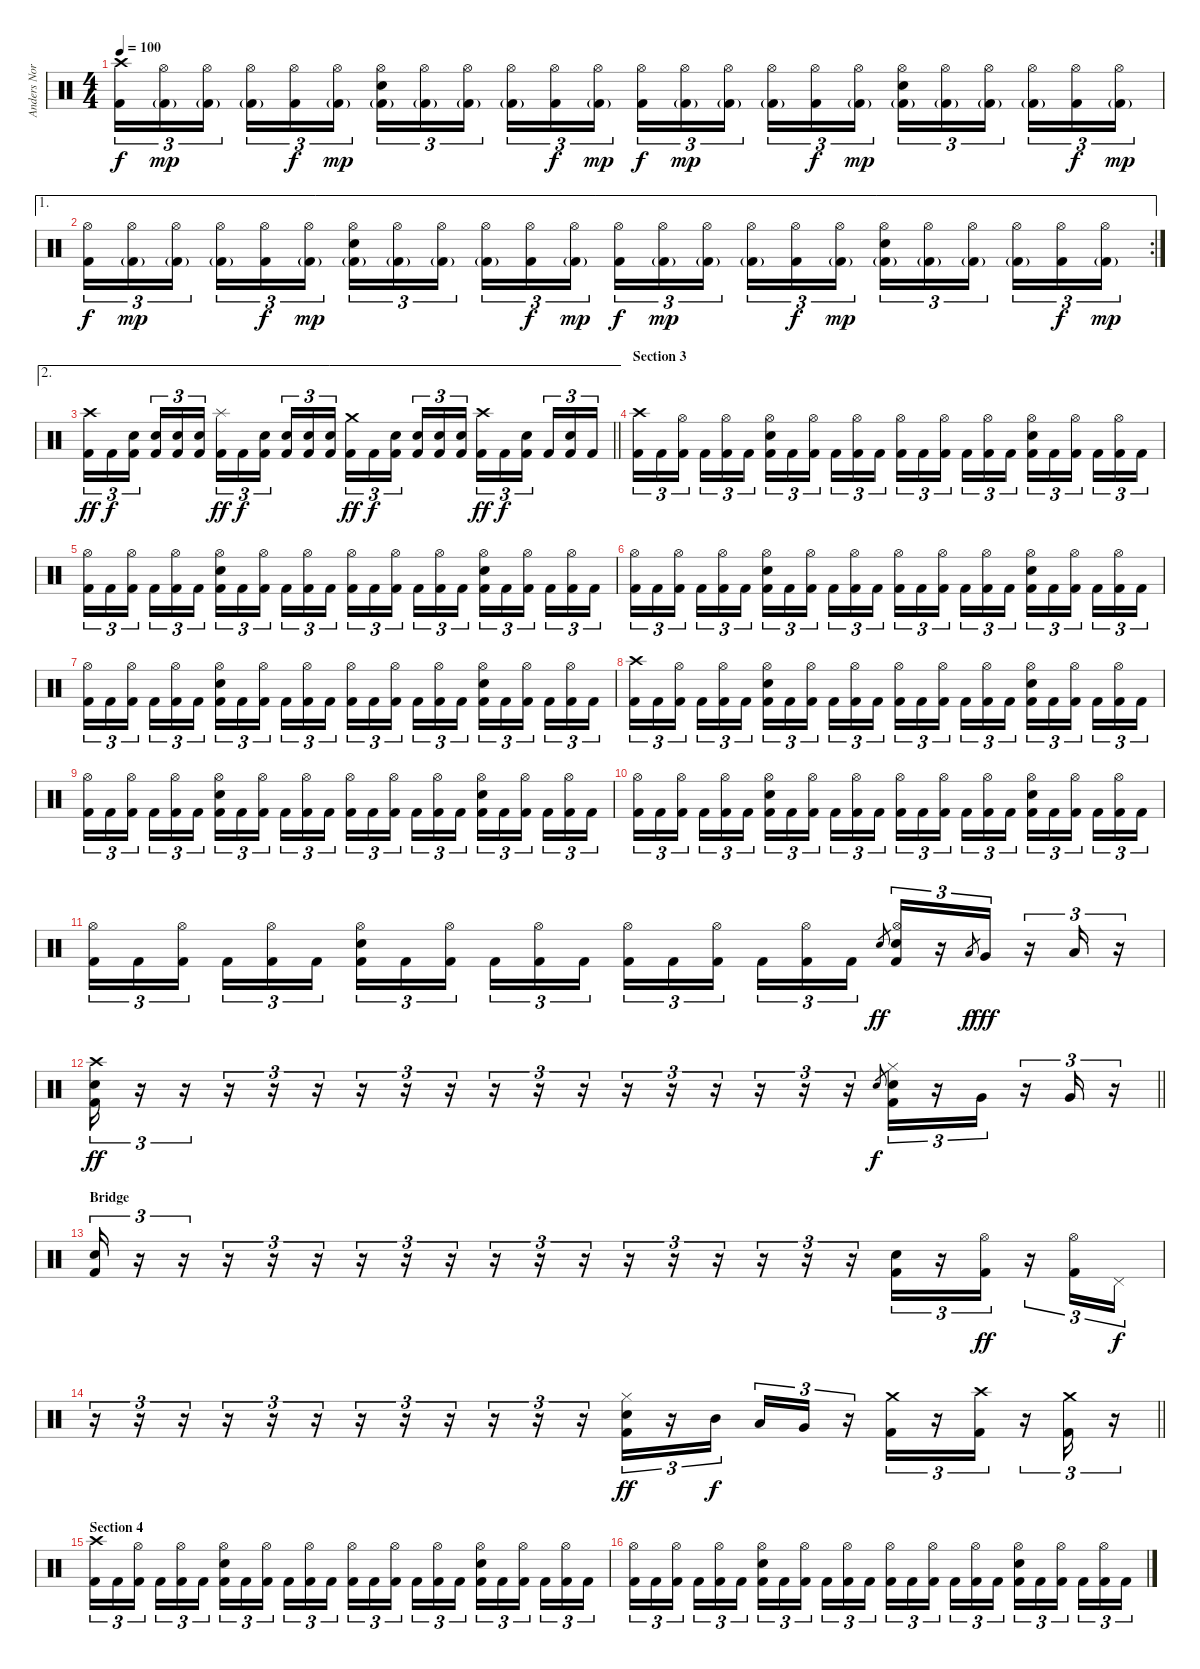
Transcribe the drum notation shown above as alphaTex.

\track ("Anders Nordin" "Anders Nor") {instrument percussion}
\staff {score}
\articulation defaults
\ts (4 4)
\tempo 100
\clef neutral
\ks c
("Crash high (hit)" "Kick (hit) 2").16{tu (3 2) dy f} ("Hi-Hat (open)" "Kick (hit) 2"{g}).16{tu (3 2) dy mp} ("Hi-Hat (open)" "Kick (hit) 2"{g}).16{tu (3 2) beam splitsecondary} ("Hi-Hat (open)" "Kick (hit) 2"{g}).16{tu (3 2)} ("Hi-Hat (open)" "Kick (hit) 2").16{tu (3 2) dy f} ("Hi-Hat (open)" "Kick (hit) 2"{g}).16{tu (3 2) dy mp} ("Hi-Hat (open)" "Snare (hit) 2" "Kick (hit) 2"{g}).16{tu (3 2)} ("Hi-Hat (open)" "Kick (hit) 2"{g}).16{tu (3 2)} ("Hi-Hat (open)" "Kick (hit) 2"{g}).16{tu (3 2) beam splitsecondary} ("Hi-Hat (open)" "Kick (hit) 2"{g}).16{tu (3 2)} ("Hi-Hat (open)" "Kick (hit) 2").16{tu (3 2) dy f} ("Hi-Hat (open)" "Kick (hit) 2"{g}).16{tu (3 2) dy mp} ("Hi-Hat (open)" "Kick (hit) 2").16{tu (3 2) dy f} ("Hi-Hat (open)" "Kick (hit) 2"{g}).16{tu (3 2) dy mp} ("Hi-Hat (open)" "Kick (hit) 2"{g}).16{tu (3 2) beam splitsecondary} ("Hi-Hat (open)" "Kick (hit) 2"{g}).16{tu (3 2)} ("Hi-Hat (open)" "Kick (hit) 2").16{tu (3 2) dy f} ("Hi-Hat (open)" "Kick (hit) 2"{g}).16{tu (3 2) dy mp} ("Hi-Hat (open)" "Snare (hit) 2" "Kick (hit) 2"{g}).16{tu (3 2)} ("Hi-Hat (open)" "Kick (hit) 2"{g}).16{tu (3 2)} ("Hi-Hat (open)" "Kick (hit) 2"{g}).16{tu (3 2) beam splitsecondary} ("Hi-Hat (open)" "Kick (hit) 2"{g}).16{tu (3 2)} ("Hi-Hat (open)" "Kick (hit) 2").16{tu (3 2) dy f} ("Hi-Hat (open)" "Kick (hit) 2"{g}).16{tu (3 2) dy mp} |
\ae 1
\rc 2
("Hi-Hat (open)" "Kick (hit) 2").16{tu (3 2) dy f} ("Hi-Hat (open)" "Kick (hit) 2"{g}).16{tu (3 2) dy mp} ("Hi-Hat (open)" "Kick (hit) 2"{g}).16{tu (3 2) beam splitsecondary} ("Hi-Hat (open)" "Kick (hit) 2"{g}).16{tu (3 2)} ("Hi-Hat (open)" "Kick (hit) 2").16{tu (3 2) dy f} ("Hi-Hat (open)" "Kick (hit) 2"{g}).16{tu (3 2) dy mp} ("Hi-Hat (open)" "Snare (hit) 2" "Kick (hit) 2"{g}).16{tu (3 2)} ("Hi-Hat (open)" "Kick (hit) 2"{g}).16{tu (3 2)} ("Hi-Hat (open)" "Kick (hit) 2"{g}).16{tu (3 2) beam splitsecondary} ("Hi-Hat (open)" "Kick (hit) 2"{g}).16{tu (3 2)} ("Hi-Hat (open)" "Kick (hit) 2").16{tu (3 2) dy f} ("Hi-Hat (open)" "Kick (hit) 2"{g}).16{tu (3 2) dy mp} ("Hi-Hat (open)" "Kick (hit) 2").16{tu (3 2) dy f} ("Hi-Hat (open)" "Kick (hit) 2"{g}).16{tu (3 2) dy mp} ("Hi-Hat (open)" "Kick (hit) 2"{g}).16{tu (3 2) beam splitsecondary} ("Hi-Hat (open)" "Kick (hit) 2"{g}).16{tu (3 2)} ("Hi-Hat (open)" "Kick (hit) 2").16{tu (3 2) dy f} ("Hi-Hat (open)" "Kick (hit) 2"{g}).16{tu (3 2) dy mp} ("Hi-Hat (open)" "Snare (hit) 2" "Kick (hit) 2"{g}).16{tu (3 2)} ("Hi-Hat (open)" "Kick (hit) 2"{g}).16{tu (3 2)} ("Hi-Hat (open)" "Kick (hit) 2"{g}).16{tu (3 2) beam splitsecondary} ("Hi-Hat (open)" "Kick (hit) 2"{g}).16{tu (3 2)} ("Hi-Hat (open)" "Kick (hit) 2").16{tu (3 2) dy f} ("Hi-Hat (open)" "Kick (hit) 2"{g}).16{tu (3 2) dy mp} |
\ae 2
\barLineRight lightlight
("Crash high (hit)" "Kick (hit) 2").16{tu (3 2) dy ff} "Kick (hit) 2".16{tu (3 2) dy f} ("Snare (hit) 2" "Kick (hit) 2").16{tu (3 2) beam splitsecondary} ("Snare (hit) 2" "Kick (hit) 2").16{tu (3 2)} ("Snare (hit) 2" "Kick (hit) 2").16{tu (3 2)} ("Snare (hit) 2" "Kick (hit) 2").16{tu (3 2)} ("Splash (hit)" "Kick (hit) 2").16{tu (3 2) dy ff} "Kick (hit) 2".16{tu (3 2) dy f} ("Snare (hit) 2" "Kick (hit) 2").16{tu (3 2) beam splitsecondary} ("Snare (hit) 2" "Kick (hit) 2").16{tu (3 2)} ("Snare (hit) 2" "Kick (hit) 2").16{tu (3 2)} ("Snare (hit) 2" "Kick (hit) 2").16{tu (3 2)} ("Crash medium (hit)" "Kick (hit) 2").16{tu (3 2) dy ff} "Kick (hit) 2".16{tu (3 2) dy f} ("Snare (hit) 2" "Kick (hit) 2").16{tu (3 2) beam splitsecondary} ("Snare (hit) 2" "Kick (hit) 2").16{tu (3 2)} ("Snare (hit) 2" "Kick (hit) 2").16{tu (3 2)} ("Snare (hit) 2" "Kick (hit) 2").16{tu (3 2)} ("Crash high (hit)" "Kick (hit) 2").16{tu (3 2) dy ff} "Kick (hit) 2".16{tu (3 2) dy f} ("Snare (hit) 2" "Kick (hit) 2").16{tu (3 2) beam splitsecondary} "Kick (hit) 2".16{tu (3 2)} ("Snare (hit) 2" "Kick (hit) 2").16{tu (3 2)} "Kick (hit) 2".16{tu (3 2)} |
\section ("" "Section 3")
("Crash high (hit)" "Kick (hit) 2").16{tu (3 2)} "Kick (hit) 2".16{tu (3 2)} ("Hi-Hat (open)" "Kick (hit) 2").16{tu (3 2) beam splitsecondary} "Kick (hit) 2".16{tu (3 2)} ("Hi-Hat (open)" "Kick (hit) 2").16{tu (3 2)} "Kick (hit) 2".16{tu (3 2)} ("Hi-Hat (open)" "Snare (hit) 2" "Kick (hit) 2").16{tu (3 2)} "Kick (hit) 2".16{tu (3 2)} ("Hi-Hat (open)" "Kick (hit) 2").16{tu (3 2) beam splitsecondary} "Kick (hit) 2".16{tu (3 2)} ("Hi-Hat (open)" "Kick (hit) 2").16{tu (3 2)} "Kick (hit) 2".16{tu (3 2)} ("Hi-Hat (open)" "Kick (hit) 2").16{tu (3 2)} "Kick (hit) 2".16{tu (3 2)} ("Hi-Hat (open)" "Kick (hit) 2").16{tu (3 2) beam splitsecondary} "Kick (hit) 2".16{tu (3 2)} ("Hi-Hat (open)" "Kick (hit) 2").16{tu (3 2)} "Kick (hit) 2".16{tu (3 2)} ("Hi-Hat (open)" "Snare (hit) 2" "Kick (hit) 2").16{tu (3 2)} "Kick (hit) 2".16{tu (3 2)} ("Hi-Hat (open)" "Kick (hit) 2").16{tu (3 2) beam splitsecondary} "Kick (hit) 2".16{tu (3 2)} ("Hi-Hat (open)" "Kick (hit) 2").16{tu (3 2)} "Kick (hit) 2".16{tu (3 2)} |
("Hi-Hat (open)" "Kick (hit) 2").16{tu (3 2)} "Kick (hit) 2".16{tu (3 2)} ("Hi-Hat (open)" "Kick (hit) 2").16{tu (3 2) beam splitsecondary} "Kick (hit) 2".16{tu (3 2)} ("Hi-Hat (open)" "Kick (hit) 2").16{tu (3 2)} "Kick (hit) 2".16{tu (3 2)} ("Hi-Hat (open)" "Snare (hit) 2" "Kick (hit) 2").16{tu (3 2)} "Kick (hit) 2".16{tu (3 2)} ("Hi-Hat (open)" "Kick (hit) 2").16{tu (3 2) beam splitsecondary} "Kick (hit) 2".16{tu (3 2)} ("Hi-Hat (open)" "Kick (hit) 2").16{tu (3 2)} "Kick (hit) 2".16{tu (3 2)} ("Hi-Hat (open)" "Kick (hit) 2").16{tu (3 2)} "Kick (hit) 2".16{tu (3 2)} ("Hi-Hat (open)" "Kick (hit) 2").16{tu (3 2) beam splitsecondary} "Kick (hit) 2".16{tu (3 2)} ("Hi-Hat (open)" "Kick (hit) 2").16{tu (3 2)} "Kick (hit) 2".16{tu (3 2)} ("Hi-Hat (open)" "Snare (hit) 2" "Kick (hit) 2").16{tu (3 2)} "Kick (hit) 2".16{tu (3 2)} ("Hi-Hat (open)" "Kick (hit) 2").16{tu (3 2) beam splitsecondary} "Kick (hit) 2".16{tu (3 2)} ("Hi-Hat (open)" "Kick (hit) 2").16{tu (3 2)} "Kick (hit) 2".16{tu (3 2)} |
("Hi-Hat (open)" "Kick (hit) 2").16{tu (3 2)} "Kick (hit) 2".16{tu (3 2)} ("Hi-Hat (open)" "Kick (hit) 2").16{tu (3 2) beam splitsecondary} "Kick (hit) 2".16{tu (3 2)} ("Hi-Hat (open)" "Kick (hit) 2").16{tu (3 2)} "Kick (hit) 2".16{tu (3 2)} ("Hi-Hat (open)" "Snare (hit) 2" "Kick (hit) 2").16{tu (3 2)} "Kick (hit) 2".16{tu (3 2)} ("Hi-Hat (open)" "Kick (hit) 2").16{tu (3 2) beam splitsecondary} "Kick (hit) 2".16{tu (3 2)} ("Hi-Hat (open)" "Kick (hit) 2").16{tu (3 2)} "Kick (hit) 2".16{tu (3 2)} ("Hi-Hat (open)" "Kick (hit) 2").16{tu (3 2)} "Kick (hit) 2".16{tu (3 2)} ("Hi-Hat (open)" "Kick (hit) 2").16{tu (3 2) beam splitsecondary} "Kick (hit) 2".16{tu (3 2)} ("Hi-Hat (open)" "Kick (hit) 2").16{tu (3 2)} "Kick (hit) 2".16{tu (3 2)} ("Hi-Hat (open)" "Snare (hit) 2" "Kick (hit) 2").16{tu (3 2)} "Kick (hit) 2".16{tu (3 2)} ("Hi-Hat (open)" "Kick (hit) 2").16{tu (3 2) beam splitsecondary} "Kick (hit) 2".16{tu (3 2)} ("Hi-Hat (open)" "Kick (hit) 2").16{tu (3 2)} "Kick (hit) 2".16{tu (3 2)} |
("Hi-Hat (open)" "Kick (hit) 2").16{tu (3 2)} "Kick (hit) 2".16{tu (3 2)} ("Hi-Hat (open)" "Kick (hit) 2").16{tu (3 2) beam splitsecondary} "Kick (hit) 2".16{tu (3 2)} ("Hi-Hat (open)" "Kick (hit) 2").16{tu (3 2)} "Kick (hit) 2".16{tu (3 2)} ("Hi-Hat (open)" "Snare (hit) 2" "Kick (hit) 2").16{tu (3 2)} "Kick (hit) 2".16{tu (3 2)} ("Hi-Hat (open)" "Kick (hit) 2").16{tu (3 2) beam splitsecondary} "Kick (hit) 2".16{tu (3 2)} ("Hi-Hat (open)" "Kick (hit) 2").16{tu (3 2)} "Kick (hit) 2".16{tu (3 2)} ("Hi-Hat (open)" "Kick (hit) 2").16{tu (3 2)} "Kick (hit) 2".16{tu (3 2)} ("Hi-Hat (open)" "Kick (hit) 2").16{tu (3 2) beam splitsecondary} "Kick (hit) 2".16{tu (3 2)} ("Hi-Hat (open)" "Kick (hit) 2").16{tu (3 2)} "Kick (hit) 2".16{tu (3 2)} ("Hi-Hat (open)" "Snare (hit) 2" "Kick (hit) 2").16{tu (3 2)} "Kick (hit) 2".16{tu (3 2)} ("Hi-Hat (open)" "Kick (hit) 2").16{tu (3 2) beam splitsecondary} "Kick (hit) 2".16{tu (3 2)} ("Hi-Hat (open)" "Kick (hit) 2").16{tu (3 2)} "Kick (hit) 2".16{tu (3 2)} |
("Crash high (hit)" "Kick (hit) 2").16{tu (3 2)} "Kick (hit) 2".16{tu (3 2)} ("Hi-Hat (open)" "Kick (hit) 2").16{tu (3 2) beam splitsecondary} "Kick (hit) 2".16{tu (3 2)} ("Hi-Hat (open)" "Kick (hit) 2").16{tu (3 2)} "Kick (hit) 2".16{tu (3 2)} ("Hi-Hat (open)" "Snare (hit) 2" "Kick (hit) 2").16{tu (3 2)} "Kick (hit) 2".16{tu (3 2)} ("Hi-Hat (open)" "Kick (hit) 2").16{tu (3 2) beam splitsecondary} "Kick (hit) 2".16{tu (3 2)} ("Hi-Hat (open)" "Kick (hit) 2").16{tu (3 2)} "Kick (hit) 2".16{tu (3 2)} ("Hi-Hat (open)" "Kick (hit) 2").16{tu (3 2)} "Kick (hit) 2".16{tu (3 2)} ("Hi-Hat (open)" "Kick (hit) 2").16{tu (3 2) beam splitsecondary} "Kick (hit) 2".16{tu (3 2)} ("Hi-Hat (open)" "Kick (hit) 2").16{tu (3 2)} "Kick (hit) 2".16{tu (3 2)} ("Hi-Hat (open)" "Snare (hit) 2" "Kick (hit) 2").16{tu (3 2)} "Kick (hit) 2".16{tu (3 2)} ("Hi-Hat (open)" "Kick (hit) 2").16{tu (3 2) beam splitsecondary} "Kick (hit) 2".16{tu (3 2)} ("Hi-Hat (open)" "Kick (hit) 2").16{tu (3 2)} "Kick (hit) 2".16{tu (3 2)} |
("Hi-Hat (open)" "Kick (hit) 2").16{tu (3 2)} "Kick (hit) 2".16{tu (3 2)} ("Hi-Hat (open)" "Kick (hit) 2").16{tu (3 2) beam splitsecondary} "Kick (hit) 2".16{tu (3 2)} ("Hi-Hat (open)" "Kick (hit) 2").16{tu (3 2)} "Kick (hit) 2".16{tu (3 2)} ("Hi-Hat (open)" "Snare (hit) 2" "Kick (hit) 2").16{tu (3 2)} "Kick (hit) 2".16{tu (3 2)} ("Hi-Hat (open)" "Kick (hit) 2").16{tu (3 2) beam splitsecondary} "Kick (hit) 2".16{tu (3 2)} ("Hi-Hat (open)" "Kick (hit) 2").16{tu (3 2)} "Kick (hit) 2".16{tu (3 2)} ("Hi-Hat (open)" "Kick (hit) 2").16{tu (3 2)} "Kick (hit) 2".16{tu (3 2)} ("Hi-Hat (open)" "Kick (hit) 2").16{tu (3 2) beam splitsecondary} "Kick (hit) 2".16{tu (3 2)} ("Hi-Hat (open)" "Kick (hit) 2").16{tu (3 2)} "Kick (hit) 2".16{tu (3 2)} ("Hi-Hat (open)" "Snare (hit) 2" "Kick (hit) 2").16{tu (3 2)} "Kick (hit) 2".16{tu (3 2)} ("Hi-Hat (open)" "Kick (hit) 2").16{tu (3 2) beam splitsecondary} "Kick (hit) 2".16{tu (3 2)} ("Hi-Hat (open)" "Kick (hit) 2").16{tu (3 2)} "Kick (hit) 2".16{tu (3 2)} |
("Hi-Hat (open)" "Kick (hit) 2").16{tu (3 2)} "Kick (hit) 2".16{tu (3 2)} ("Hi-Hat (open)" "Kick (hit) 2").16{tu (3 2) beam splitsecondary} "Kick (hit) 2".16{tu (3 2)} ("Hi-Hat (open)" "Kick (hit) 2").16{tu (3 2)} "Kick (hit) 2".16{tu (3 2)} ("Hi-Hat (open)" "Snare (hit) 2" "Kick (hit) 2").16{tu (3 2)} "Kick (hit) 2".16{tu (3 2)} ("Hi-Hat (open)" "Kick (hit) 2").16{tu (3 2) beam splitsecondary} "Kick (hit) 2".16{tu (3 2)} ("Hi-Hat (open)" "Kick (hit) 2").16{tu (3 2)} "Kick (hit) 2".16{tu (3 2)} ("Hi-Hat (open)" "Kick (hit) 2").16{tu (3 2)} "Kick (hit) 2".16{tu (3 2)} ("Hi-Hat (open)" "Kick (hit) 2").16{tu (3 2) beam splitsecondary} "Kick (hit) 2".16{tu (3 2)} ("Hi-Hat (open)" "Kick (hit) 2").16{tu (3 2)} "Kick (hit) 2".16{tu (3 2)} ("Hi-Hat (open)" "Snare (hit) 2" "Kick (hit) 2").16{tu (3 2)} "Kick (hit) 2".16{tu (3 2)} ("Hi-Hat (open)" "Kick (hit) 2").16{tu (3 2) beam splitsecondary} "Kick (hit) 2".16{tu (3 2)} ("Hi-Hat (open)" "Kick (hit) 2").16{tu (3 2)} "Kick (hit) 2".16{tu (3 2)} |
("Hi-Hat (open)" "Kick (hit) 2").16{tu (3 2)} "Kick (hit) 2".16{tu (3 2)} ("Hi-Hat (open)" "Kick (hit) 2").16{tu (3 2) beam splitsecondary} "Kick (hit) 2".16{tu (3 2)} ("Hi-Hat (open)" "Kick (hit) 2").16{tu (3 2)} "Kick (hit) 2".16{tu (3 2)} ("Hi-Hat (open)" "Snare (hit) 2" "Kick (hit) 2").16{tu (3 2)} "Kick (hit) 2".16{tu (3 2)} ("Hi-Hat (open)" "Kick (hit) 2").16{tu (3 2) beam splitsecondary} "Kick (hit) 2".16{tu (3 2)} ("Hi-Hat (open)" "Kick (hit) 2").16{tu (3 2)} "Kick (hit) 2".16{tu (3 2)} ("Hi-Hat (open)" "Kick (hit) 2").16{tu (3 2)} "Kick (hit) 2".16{tu (3 2)} ("Hi-Hat (open)" "Kick (hit) 2").16{tu (3 2) beam splitsecondary} "Kick (hit) 2".16{tu (3 2)} ("Hi-Hat (open)" "Kick (hit) 2").16{tu (3 2)} "Kick (hit) 2".16{tu (3 2)} "Snare (hit) 2".8{gr dy ff} ("Hi-Hat (open)" "Snare (hit) 2" "Kick (hit) 2").16{tu (3 2)} r.16{tu (3 2)} "Low Tom (hit)".8{gr dy f} "Very Low Tom (hit)".16{tu (3 2) dy fff} r.16{tu (3 2)} "Low Floor Tom (hit)".16{tu (3 2)} r.16{tu (3 2)} |
\barLineRight lightlight
("Crash high (hit)" "Snare (hit) 2" "Kick (hit) 2").16{tu (3 2) dy ff} r.16{tu (3 2)} r.16{tu (3 2)} r.16{tu (3 2)} r.16{tu (3 2)} r.16{tu (3 2)} r.16{tu (3 2)} r.16{tu (3 2)} r.16{tu (3 2)} r.16{tu (3 2)} r.16{tu (3 2)} r.16{tu (3 2)} r.16{tu (3 2)} r.16{tu (3 2)} r.16{tu (3 2)} r.16{tu (3 2)} r.16{tu (3 2)} r.16{tu (3 2)} "Snare (hit) 2".8{gr dy f} ("Hi-Hat (closed)" "Snare (hit) 2" "Kick (hit) 2").16{tu (3 2)} r.16{tu (3 2)} "Very Low Tom (hit)".16{tu (3 2)} r.16{tu (3 2)} "Very Low Tom (hit)".16{tu (3 2)} r.16{tu (3 2)} |
\section ("" "Bridge")
("Snare (hit) 2" "Kick (hit) 2").16{tu (3 2)} r.16{tu (3 2)} r.16{tu (3 2)} r.16{tu (3 2)} r.16{tu (3 2)} r.16{tu (3 2)} r.16{tu (3 2)} r.16{tu (3 2)} r.16{tu (3 2)} r.16{tu (3 2)} r.16{tu (3 2)} r.16{tu (3 2)} r.16{tu (3 2)} r.16{tu (3 2)} r.16{tu (3 2)} r.16{tu (3 2)} r.16{tu (3 2)} r.16{tu (3 2)} ("Snare (hit) 2" "Kick (hit) 2").16{tu (3 2)} r.16{tu (3 2)} ("Hi-Hat (open)" "Kick (hit) 2").16{tu (3 2) dy ff} r.16{tu (3 2)} ("Hi-Hat (open)" "Kick (hit) 2").16{tu (3 2)} "Pedal Hi-Hat (hit)".16{tu (3 2) dy f} |
\barLineRight lightlight
r.16{tu (3 2)} r.16{tu (3 2)} r.16{tu (3 2)} r.16{tu (3 2)} r.16{tu (3 2)} r.16{tu (3 2)} r.16{tu (3 2)} r.16{tu (3 2)} r.16{tu (3 2)} r.16{tu (3 2)} r.16{tu (3 2)} r.16{tu (3 2)} ("Hi-Hat (closed)" "Snare (hit) 2" "Kick (hit) 2").16{tu (3 2) dy ff} r.16{tu (3 2)} "Mid Tom (hit)".16{tu (3 2) dy f beam splitsecondary} "Low Tom (hit)".16{tu (3 2)} "Very Low Tom (hit)".16{tu (3 2)} r.16{tu (3 2)} ("Crash medium (hit)" "Kick (hit) 2").16{tu (3 2)} r.16{tu (3 2)} ("Crash high (hit)" "Kick (hit) 2").16{tu (3 2)} r.16{tu (3 2)} ("Crash medium (hit)" "Kick (hit) 2").16{tu (3 2)} r.16{tu (3 2)} |
\section ("" "Section 4")
("Crash high (hit)" "Kick (hit) 2").16{tu (3 2)} "Kick (hit) 2".16{tu (3 2)} ("Hi-Hat (open)" "Kick (hit) 2").16{tu (3 2) beam splitsecondary} "Kick (hit) 2".16{tu (3 2)} ("Hi-Hat (open)" "Kick (hit) 2").16{tu (3 2)} "Kick (hit) 2".16{tu (3 2)} ("Hi-Hat (open)" "Snare (hit) 2" "Kick (hit) 2").16{tu (3 2)} "Kick (hit) 2".16{tu (3 2)} ("Hi-Hat (open)" "Kick (hit) 2").16{tu (3 2) beam splitsecondary} "Kick (hit) 2".16{tu (3 2)} ("Hi-Hat (open)" "Kick (hit) 2").16{tu (3 2)} "Kick (hit) 2".16{tu (3 2)} ("Hi-Hat (open)" "Kick (hit) 2").16{tu (3 2)} "Kick (hit) 2".16{tu (3 2)} ("Hi-Hat (open)" "Kick (hit) 2").16{tu (3 2) beam splitsecondary} "Kick (hit) 2".16{tu (3 2)} ("Hi-Hat (open)" "Kick (hit) 2").16{tu (3 2)} "Kick (hit) 2".16{tu (3 2)} ("Hi-Hat (open)" "Snare (hit) 2" "Kick (hit) 2").16{tu (3 2)} "Kick (hit) 2".16{tu (3 2)} ("Hi-Hat (open)" "Kick (hit) 2").16{tu (3 2) beam splitsecondary} "Kick (hit) 2".16{tu (3 2)} ("Hi-Hat (open)" "Kick (hit) 2").16{tu (3 2)} "Kick (hit) 2".16{tu (3 2)} |
("Hi-Hat (open)" "Kick (hit) 2").16{tu (3 2)} "Kick (hit) 2".16{tu (3 2)} ("Hi-Hat (open)" "Kick (hit) 2").16{tu (3 2) beam splitsecondary} "Kick (hit) 2".16{tu (3 2)} ("Hi-Hat (open)" "Kick (hit) 2").16{tu (3 2)} "Kick (hit) 2".16{tu (3 2)} ("Hi-Hat (open)" "Snare (hit) 2" "Kick (hit) 2").16{tu (3 2)} "Kick (hit) 2".16{tu (3 2)} ("Hi-Hat (open)" "Kick (hit) 2").16{tu (3 2) beam splitsecondary} "Kick (hit) 2".16{tu (3 2)} ("Hi-Hat (open)" "Kick (hit) 2").16{tu (3 2)} "Kick (hit) 2".16{tu (3 2)} ("Hi-Hat (open)" "Kick (hit) 2").16{tu (3 2)} "Kick (hit) 2".16{tu (3 2)} ("Hi-Hat (open)" "Kick (hit) 2").16{tu (3 2) beam splitsecondary} "Kick (hit) 2".16{tu (3 2)} ("Hi-Hat (open)" "Kick (hit) 2").16{tu (3 2)} "Kick (hit) 2".16{tu (3 2)} ("Hi-Hat (open)" "Snare (hit) 2" "Kick (hit) 2").16{tu (3 2)} "Kick (hit) 2".16{tu (3 2)} ("Hi-Hat (open)" "Kick (hit) 2").16{tu (3 2) beam splitsecondary} "Kick (hit) 2".16{tu (3 2)} ("Hi-Hat (open)" "Kick (hit) 2").16{tu (3 2)} "Kick (hit) 2".16{tu (3 2)}
